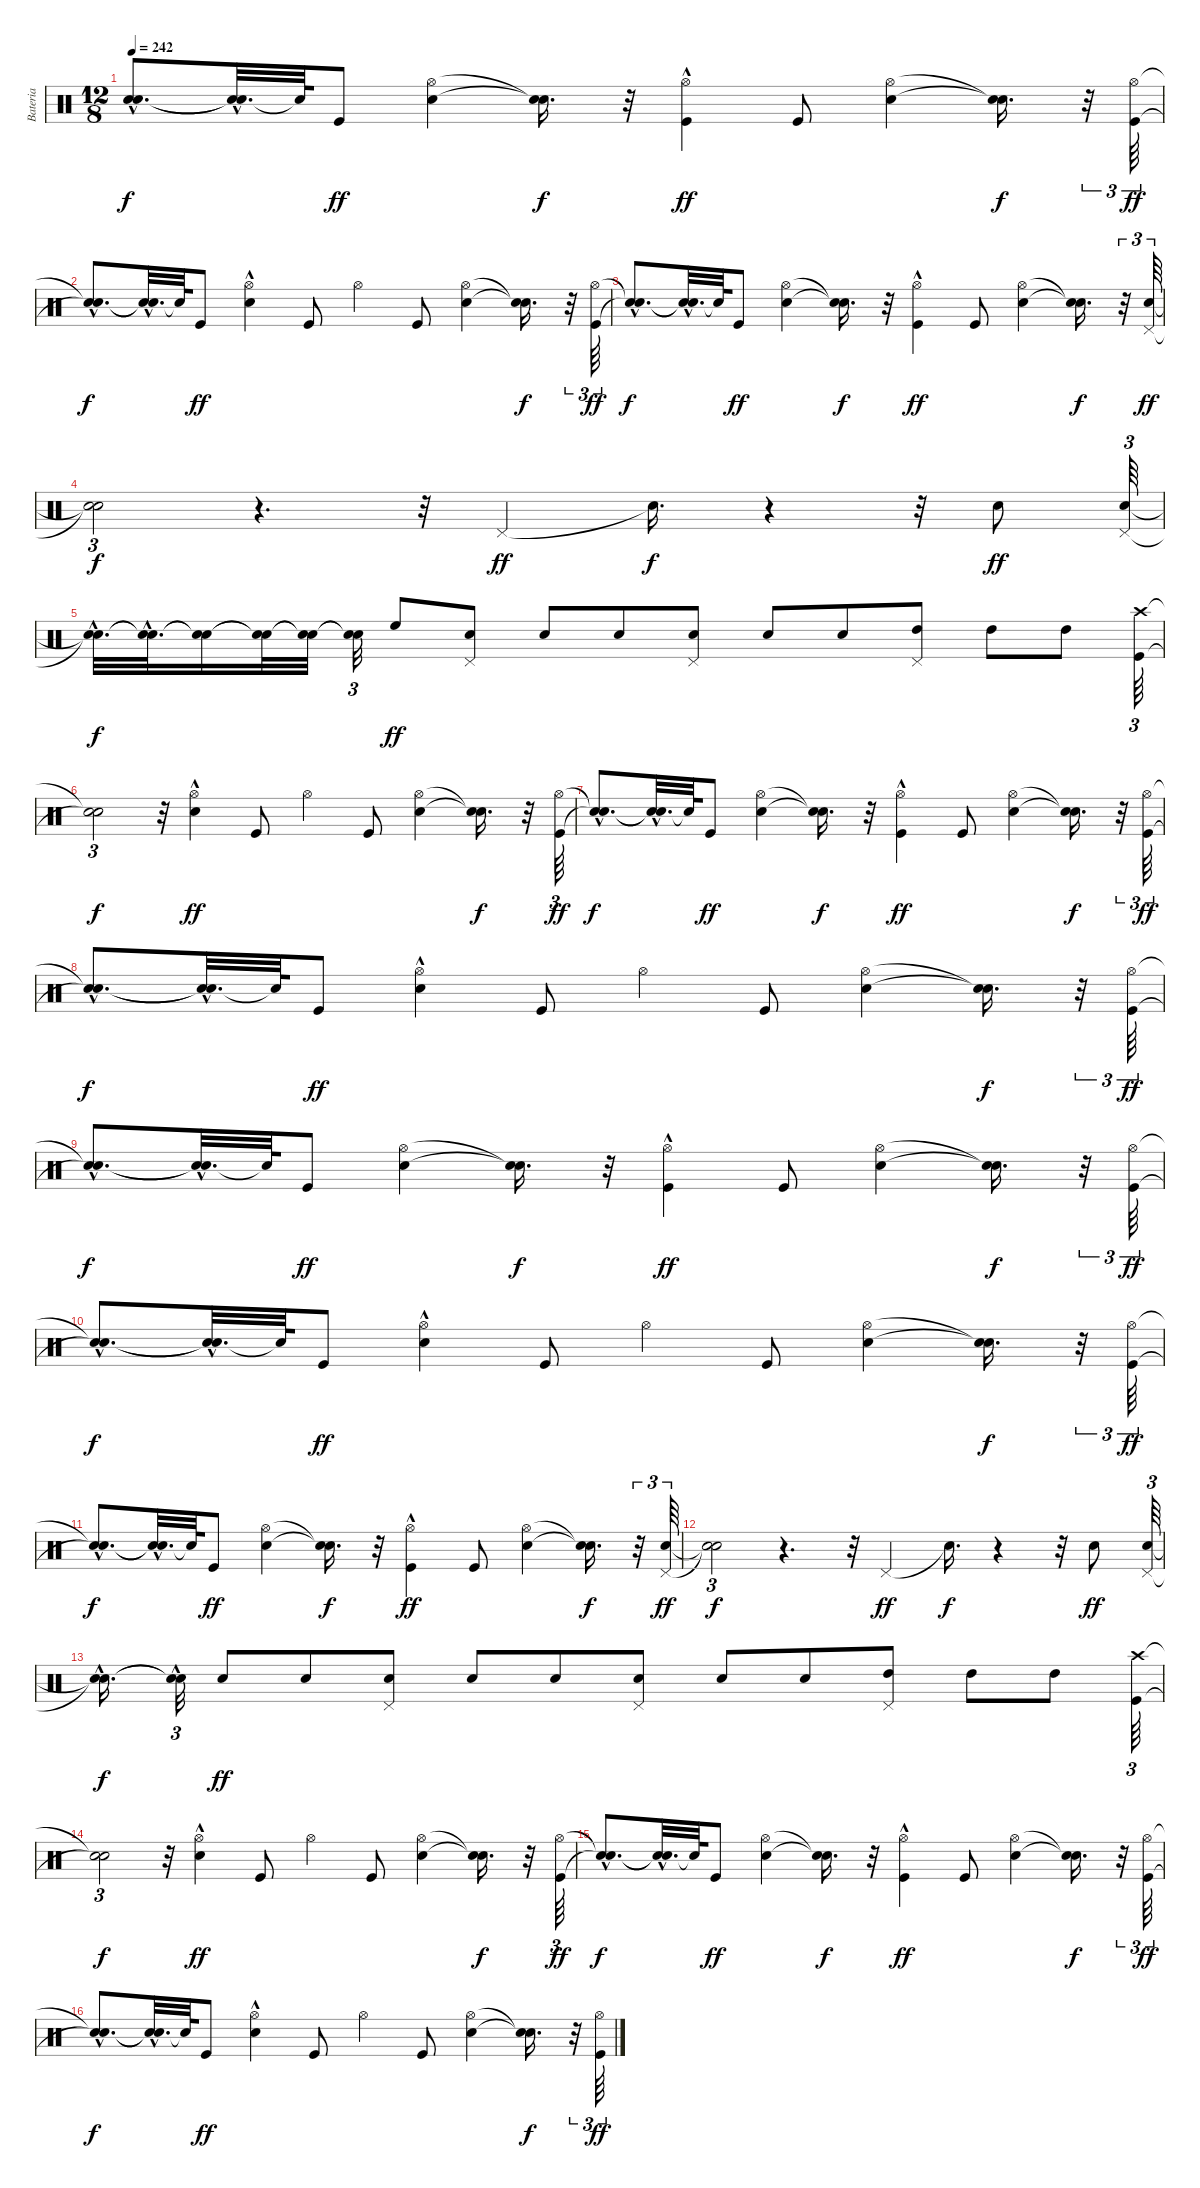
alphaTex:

\track ("Bateria" "Bateria") {instrument percussion}
\staff {score}
\articulation defaults
\ts (12 8)
\tempo 242
\clef neutral
\ks c
("Snare (hit)"{hac t} "Snare (hit)"{hac t}).8{d dy f} ("Snare (hit)"{t} "Snare (hit)"{hac t}).32{d} "Snare (hit)"{t}.64 "Kick (hit)".8{dy ff} ("Snare (hit) 2" "Hi-Hat (open)").4 ("Snare (hit)"{t} "Snare (hit)"{t}).16{d dy f} r.32 ("Kick (hit)"{hac} "Hi-Hat (open)").4{dy ff} "Kick (hit)".8 ("Snare (hit) 2" "Hi-Hat (open)").4 ("Snare (hit)"{t} "Snare (hit)"{t}).16{d dy f} r.32{tu (3 2)} ("Kick (hit)" "Hi-Hat (open)").64{tu (3 2) dy ff} |
("Snare (hit)"{hac t} "Snare (hit)"{hac t}).8{d dy f} ("Snare (hit)"{t} "Snare (hit)"{hac t}).32{d} "Snare (hit)"{t}.64 "Kick (hit)".8{dy ff} ("Snare (hit) 2"{hac} "Hi-Hat (open)").4 "Kick (hit)".8 "Hi-Hat (open)".4 "Kick (hit)".8 ("Snare (hit) 2" "Hi-Hat (open)").4 ("Snare (hit)"{t} "Snare (hit)"{t}).16{d dy f} r.32{tu (3 2)} ("Kick (hit)" "Hi-Hat (open)").64{tu (3 2) dy ff} |
("Snare (hit)"{hac t} "Snare (hit)"{hac t}).8{d dy f} ("Snare (hit)"{t} "Snare (hit)"{hac t}).32{d} "Snare (hit)"{t}.64 "Kick (hit)".8{dy ff} ("Snare (hit) 2" "Hi-Hat (open)").4 ("Snare (hit)"{t} "Snare (hit)"{t}).16{d dy f} r.32 ("Kick (hit)"{hac} "Hi-Hat (open)").4{dy ff} "Kick (hit)".8 ("Snare (hit) 2" "Hi-Hat (open)").4 ("Snare (hit)"{t} "Snare (hit)"{t}).16{d dy f} r.32{tu (3 2)} ("Snare (hit) 2" "Pedal Hi-Hat (hit)").64{tu (3 2) dy ff} |
("Snare (hit)"{t} "Snare (hit)"{t}).2{tu (3 2) dy f} r.4{d} r.32 "Pedal Hi-Hat (hit)".4{dy ff} "Snare (hit)"{t}.16{d dy f} r.4 r.32 "Snare (hit) 2".8{dy ff} ("Snare (hit) 2" "Pedal Hi-Hat (hit)").64{tu (3 2)} |
("Snare (hit)"{hac t} "Snare (hit)"{hac t}).32{d dy f} ("Snare (hit)"{t} "Snare (hit)"{hac t}).32{d} ("Snare (hit)"{t} "Snare (hit)"{t}).16 ("Snare (hit)"{t} "Snare (hit)"{t}).32 ("Snare (hit)"{t} "Snare (hit)"{t}).32 ("Snare (hit)"{t} "Snare (hit)"{t}).32{tu (3 2)} "High Floor Tom (hit)".8{dy ff} ("Snare (hit) 2" "Pedal Hi-Hat (hit)").8 "Snare (hit) 2".8 "Snare (hit) 2".8 ("Snare (hit) 2" "Pedal Hi-Hat (hit)").8 "Snare (hit) 2".8 "Snare (hit) 2".8 ("Pedal Hi-Hat (hit)" "High Tom (hit)").8 "High Tom (hit)".8 "High Tom (hit)".8 ("Kick (hit)" "Crash high (hit)").64{tu (3 2)} |
("Snare (hit)"{t} "Snare (hit)"{t}).2{tu (3 2) dy f} r.32 ("Snare (hit) 2"{hac} "Hi-Hat (open)").4{dy ff} "Kick (hit)".8 "Hi-Hat (open)".4 "Kick (hit)".8 ("Snare (hit) 2" "Hi-Hat (open)").4 ("Snare (hit)"{t} "Snare (hit)"{t}).16{d dy f} r.32 ("Kick (hit)" "Hi-Hat (open)").64{tu (3 2) dy ff} |
("Snare (hit)"{hac t} "Snare (hit)"{hac t}).8{d dy f} ("Snare (hit)"{t} "Snare (hit)"{hac t}).32{d} "Snare (hit)"{t}.64 "Kick (hit)".8{dy ff} ("Snare (hit) 2" "Hi-Hat (open)").4 ("Snare (hit)"{t} "Snare (hit)"{t}).16{d dy f} r.32 ("Kick (hit)"{hac} "Hi-Hat (open)").4{dy ff} "Kick (hit)".8 ("Snare (hit) 2" "Hi-Hat (open)").4 ("Snare (hit)"{t} "Snare (hit)"{t}).16{d dy f} r.32{tu (3 2)} ("Kick (hit)" "Hi-Hat (open)").64{tu (3 2) dy ff} |
("Snare (hit)"{hac t} "Snare (hit)"{hac t}).8{d dy f} ("Snare (hit)"{t} "Snare (hit)"{hac t}).32{d} "Snare (hit)"{t}.64 "Kick (hit)".8{dy ff} ("Snare (hit) 2"{hac} "Hi-Hat (open)").4 "Kick (hit)".8 "Hi-Hat (open)".4 "Kick (hit)".8 ("Snare (hit) 2" "Hi-Hat (open)").4 ("Snare (hit)"{t} "Snare (hit)"{t}).16{d dy f} r.32{tu (3 2)} ("Kick (hit)" "Hi-Hat (open)").64{tu (3 2) dy ff} |
("Snare (hit)"{hac t} "Snare (hit)"{hac t}).8{d dy f} ("Snare (hit)"{t} "Snare (hit)"{hac t}).32{d} "Snare (hit)"{t}.64 "Kick (hit)".8{dy ff} ("Snare (hit) 2" "Hi-Hat (open)").4 ("Snare (hit)"{t} "Snare (hit)"{t}).16{d dy f} r.32 ("Kick (hit)"{hac} "Hi-Hat (open)").4{dy ff} "Kick (hit)".8 ("Snare (hit) 2" "Hi-Hat (open)").4 ("Snare (hit)"{t} "Snare (hit)"{t}).16{d dy f} r.32{tu (3 2)} ("Kick (hit)" "Hi-Hat (open)").64{tu (3 2) dy ff} |
("Snare (hit)"{hac t} "Snare (hit)"{hac t}).8{d dy f} ("Snare (hit)"{t} "Snare (hit)"{hac t}).32{d} "Snare (hit)"{t}.64 "Kick (hit)".8{dy ff} ("Snare (hit) 2"{hac} "Hi-Hat (open)").4 "Kick (hit)".8 "Hi-Hat (open)".4 "Kick (hit)".8 ("Snare (hit) 2" "Hi-Hat (open)").4 ("Snare (hit)"{t} "Snare (hit)"{t}).16{d dy f} r.32{tu (3 2)} ("Kick (hit)" "Hi-Hat (open)").64{tu (3 2) dy ff} |
("Snare (hit)"{hac t} "Snare (hit)"{hac t}).8{d dy f} ("Snare (hit)"{t} "Snare (hit)"{hac t}).32{d} "Snare (hit)"{t}.64 "Kick (hit)".8{dy ff} ("Snare (hit) 2" "Hi-Hat (open)").4 ("Snare (hit)"{t} "Snare (hit)"{t}).16{d dy f} r.32 ("Kick (hit)"{hac} "Hi-Hat (open)").4{dy ff} "Kick (hit)".8 ("Snare (hit) 2" "Hi-Hat (open)").4 ("Snare (hit)"{t} "Snare (hit)"{t}).16{d dy f} r.32{tu (3 2)} ("Snare (hit) 2" "Pedal Hi-Hat (hit)").64{tu (3 2) dy ff} |
("Snare (hit)"{t} "Snare (hit)"{t}).2{tu (3 2) dy f} r.4{d} r.32 "Pedal Hi-Hat (hit)".4{dy ff} "Snare (hit)"{t}.16{d dy f} r.4 r.32 "Snare (hit) 2".8{dy ff} ("Snare (hit) 2" "Pedal Hi-Hat (hit)").64{tu (3 2)} |
("Snare (hit)"{hac t} "Snare (hit)"{hac t}).16{d dy f} ("Snare (hit)"{t} "Snare (hit)"{hac t}).32{tu (3 2)} "Snare (hit) 2".8{dy ff} "Snare (hit) 2".8 ("Snare (hit) 2" "Pedal Hi-Hat (hit)").8 "Snare (hit) 2".8 "Snare (hit) 2".8 ("Snare (hit) 2" "Pedal Hi-Hat (hit)").8 "Snare (hit) 2".8 "Snare (hit) 2".8 ("Pedal Hi-Hat (hit)" "High Tom (hit)").8 "High Tom (hit)".8 "High Tom (hit)".8 ("Kick (hit)" "Crash high (hit)").64{tu (3 2)} |
("Snare (hit)"{t} "Snare (hit)"{t}).2{tu (3 2) dy f} r.32 ("Snare (hit) 2"{hac} "Hi-Hat (open)").4{dy ff} "Kick (hit)".8 "Hi-Hat (open)".4 "Kick (hit)".8 ("Snare (hit) 2" "Hi-Hat (open)").4 ("Snare (hit)"{t} "Snare (hit)"{t}).16{d dy f} r.32 ("Kick (hit)" "Hi-Hat (open)").64{tu (3 2) dy ff} |
("Snare (hit)"{hac t} "Snare (hit)"{hac t}).8{d dy f} ("Snare (hit)"{t} "Snare (hit)"{hac t}).32{d} "Snare (hit)"{t}.64 "Kick (hit)".8{dy ff} ("Snare (hit) 2" "Hi-Hat (open)").4 ("Snare (hit)"{t} "Snare (hit)"{t}).16{d dy f} r.32 ("Kick (hit)"{hac} "Hi-Hat (open)").4{dy ff} "Kick (hit)".8 ("Snare (hit) 2" "Hi-Hat (open)").4 ("Snare (hit)"{t} "Snare (hit)"{t}).16{d dy f} r.32{tu (3 2)} ("Kick (hit)" "Hi-Hat (open)").64{tu (3 2) dy ff} |
("Snare (hit)"{hac t} "Snare (hit)"{hac t}).8{d dy f} ("Snare (hit)"{t} "Snare (hit)"{hac t}).32{d} "Snare (hit)"{t}.64 "Kick (hit)".8{dy ff} ("Snare (hit) 2"{hac} "Hi-Hat (open)").4 "Kick (hit)".8 "Hi-Hat (open)".4 "Kick (hit)".8 ("Snare (hit) 2" "Hi-Hat (open)").4 ("Snare (hit)"{t} "Snare (hit)"{t}).16{d dy f} r.32{tu (3 2)} ("Kick (hit)" "Hi-Hat (open)").64{tu (3 2) dy ff}
